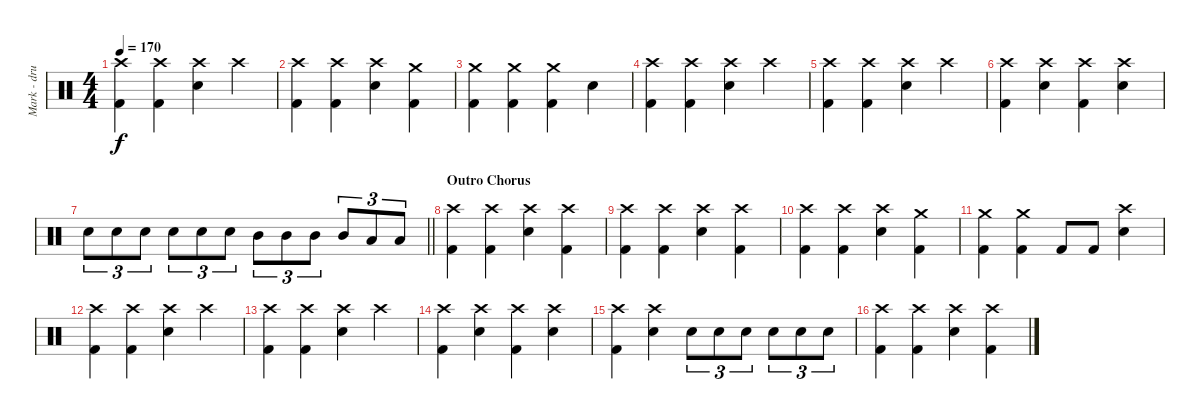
\track ("Mark - drums" "Mark - dru") {instrument percussion}
\staff {score}
\articulation defaults
\ts (4 4)
\tempo 170
\clef neutral
\ks c
("Kick (hit) 2" "Crash high (hit)").4{dy f} ("Kick (hit) 2" "Crash high (hit)").4 ("Electric Snare (hit)" "Crash high (hit)").4 "Crash high (hit)".4 |
("Kick (hit) 2" "Crash high (hit)").4 ("Kick (hit) 2" "Crash high (hit)").4 ("Electric Snare (hit)" "Crash high (hit)").4 ("Kick (hit) 2" "Crash medium (hit)").4 |
("Kick (hit) 2" "Crash medium (hit)").4 ("Kick (hit) 2" "Crash medium (hit)").4 ("Kick (hit) 2" "Crash medium (hit)").4 "Electric Snare (hit)".4 |
("Kick (hit) 2" "Crash high (hit)").4 ("Kick (hit) 2" "Crash high (hit)").4 ("Electric Snare (hit)" "Crash high (hit)").4 "Crash high (hit)".4 |
("Kick (hit) 2" "Crash high (hit)").4 ("Kick (hit) 2" "Crash high (hit)").4 ("Electric Snare (hit)" "Crash high (hit)").4 "Crash high (hit)".4 |
("Kick (hit) 2" "Crash high (hit)").4 ("Electric Snare (hit)" "Crash high (hit)").4 ("Kick (hit) 2" "Crash high (hit)").4 ("Electric Snare (hit)" "Crash high (hit)").4 |
\barLineRight lightlight "Electric Snare (hit)".8{tu (3 2)} "Electric Snare (hit)".8{tu (3 2)} "Electric Snare (hit)".8{tu (3 2)} "Electric Snare (hit)".8{tu (3 2)} "Electric Snare (hit)".8{tu (3 2)} "Electric Snare (hit)".8{tu (3 2)} "Mid Tom (hit)".8{tu (3 2)} "Mid Tom (hit)".8{tu (3 2)} "Mid Tom (hit)".8{tu (3 2)} "Mid Tom (hit)".8{tu (3 2)} "Low Tom (hit)".8{tu (3 2)} "Low Tom (hit)".8{tu (3 2)}
|
\section ("" "Outro Chorus")
("Kick (hit) 2" "Crash high (hit)").4 ("Kick (hit) 2" "Crash high (hit)").4 ("Electric Snare (hit)" "Crash high (hit)").4 ("Kick (hit) 2" "Crash high (hit)").4 |
("Kick (hit) 2" "Crash high (hit)").4 ("Kick (hit) 2" "Crash high (hit)").4 ("Electric Snare (hit)" "Crash high (hit)").4 ("Kick (hit) 2" "Crash high (hit)").4 |
("Kick (hit) 2" "Crash high (hit)").4 ("Kick (hit) 2" "Crash high (hit)").4 ("Electric Snare (hit)" "Crash high (hit)").4 ("Kick (hit) 2" "Crash medium (hit)").4 |
("Kick (hit) 2" "Crash medium (hit)").4 ("Kick (hit) 2" "Crash medium (hit)").4 "Kick (hit) 2".8 "Kick (hit) 2".8 ("Electric Snare (hit)" "Crash high (hit)").4 |
("Kick (hit) 2" "Crash high (hit)").4 ("Kick (hit) 2" "Crash high (hit)").4 ("Electric Snare (hit)" "Crash high (hit)").4 "Crash high (hit)".4 |
("Kick (hit) 2" "Crash high (hit)").4 ("Kick (hit) 2" "Crash high (hit)").4 ("Electric Snare (hit)" "Crash high (hit)").4 "Crash high (hit)".4 |
("Kick (hit) 2" "Crash high (hit)").4 ("Electric Snare (hit)" "Crash high (hit)").4 ("Kick (hit) 2" "Crash high (hit)").4 ("Electric Snare (hit)" "Crash high (hit)").4 |
("Kick (hit) 2" "Crash high (hit)").4 ("Electric Snare (hit)" "Crash high (hit)").4 "Electric Snare (hit)".8{tu (3 2)} "Electric Snare (hit)".8{tu (3 2)} "Electric Snare (hit)".8{tu (3 2)} "Electric Snare (hit)".8{tu (3 2)} "Electric Snare (hit)".8{tu (3 2)} "Electric Snare (hit)".8{tu (3 2)} |
("Kick (hit) 2" "Crash high (hit)").4 ("Kick (hit) 2" "Crash high (hit)").4 ("Electric Snare (hit)" "Crash high (hit)").4 ("Kick (hit) 2" "Crash high (hit)").4
